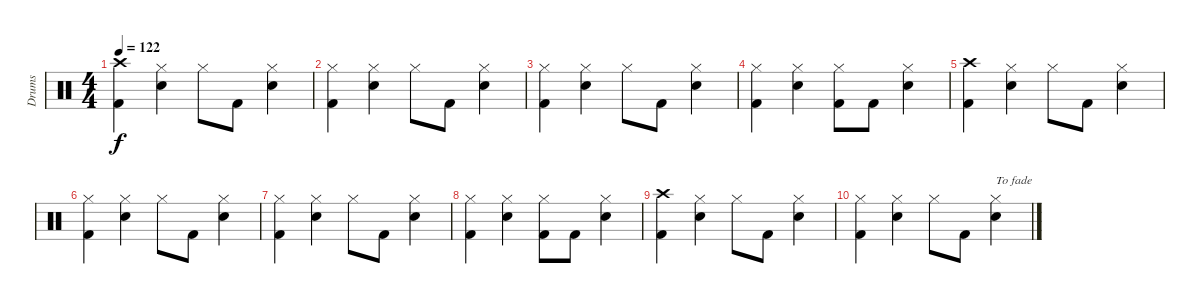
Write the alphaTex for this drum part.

\track ("Drums" "Drums") {instrument percussion}
\staff {score}
\articulation defaults
\ts (4 4)
\tempo 122
\clef neutral
\ks c
("Crash high (hit)" "Kick (hit) 2").4{dy f} ("Hi-Hat (closed)" "Electric Snare (hit)").4 "Hi-Hat (closed)".8 "Kick (hit) 2".8 ("Hi-Hat (closed)" "Electric Snare (hit)").4 |
("Hi-Hat (closed)" "Kick (hit) 2").4 ("Hi-Hat (closed)" "Electric Snare (hit)").4 "Hi-Hat (closed)".8 "Kick (hit) 2".8 ("Hi-Hat (closed)" "Electric Snare (hit)").4 |
("Hi-Hat (closed)" "Kick (hit) 2").4 ("Hi-Hat (closed)" "Electric Snare (hit)").4 "Hi-Hat (closed)".8 "Kick (hit) 2".8 ("Hi-Hat (closed)" "Electric Snare (hit)").4 |
("Hi-Hat (closed)" "Kick (hit) 2").4 ("Hi-Hat (closed)" "Electric Snare (hit)").4 ("Hi-Hat (closed)" "Kick (hit) 2").8 "Kick (hit) 2".8 ("Hi-Hat (closed)" "Electric Snare (hit)").4 |
("Crash high (hit)" "Kick (hit) 2").4 ("Hi-Hat (closed)" "Electric Snare (hit)").4 "Hi-Hat (closed)".8 "Kick (hit) 2".8 ("Hi-Hat (closed)" "Electric Snare (hit)").4 |
("Hi-Hat (closed)" "Kick (hit) 2").4 ("Hi-Hat (closed)" "Electric Snare (hit)").4 "Hi-Hat (closed)".8 "Kick (hit) 2".8 ("Hi-Hat (closed)" "Electric Snare (hit)").4 |
("Hi-Hat (closed)" "Kick (hit) 2").4 ("Hi-Hat (closed)" "Electric Snare (hit)").4 "Hi-Hat (closed)".8 "Kick (hit) 2".8 ("Hi-Hat (closed)" "Electric Snare (hit)").4 |
("Hi-Hat (closed)" "Kick (hit) 2").4 ("Hi-Hat (closed)" "Electric Snare (hit)").4 ("Hi-Hat (closed)" "Kick (hit) 2").8 "Kick (hit) 2".8 ("Hi-Hat (closed)" "Electric Snare (hit)").4 |
("Crash high (hit)" "Kick (hit) 2").4 ("Hi-Hat (closed)" "Electric Snare (hit)").4 "Hi-Hat (closed)".8 "Kick (hit) 2".8 ("Hi-Hat (closed)" "Electric Snare (hit)").4 |
("Hi-Hat (closed)" "Kick (hit) 2").4 ("Hi-Hat (closed)" "Electric Snare (hit)").4 "Hi-Hat (closed)".8 "Kick (hit) 2".8 ("Hi-Hat (closed)" "Electric Snare (hit)").4{txt "To fade"}
